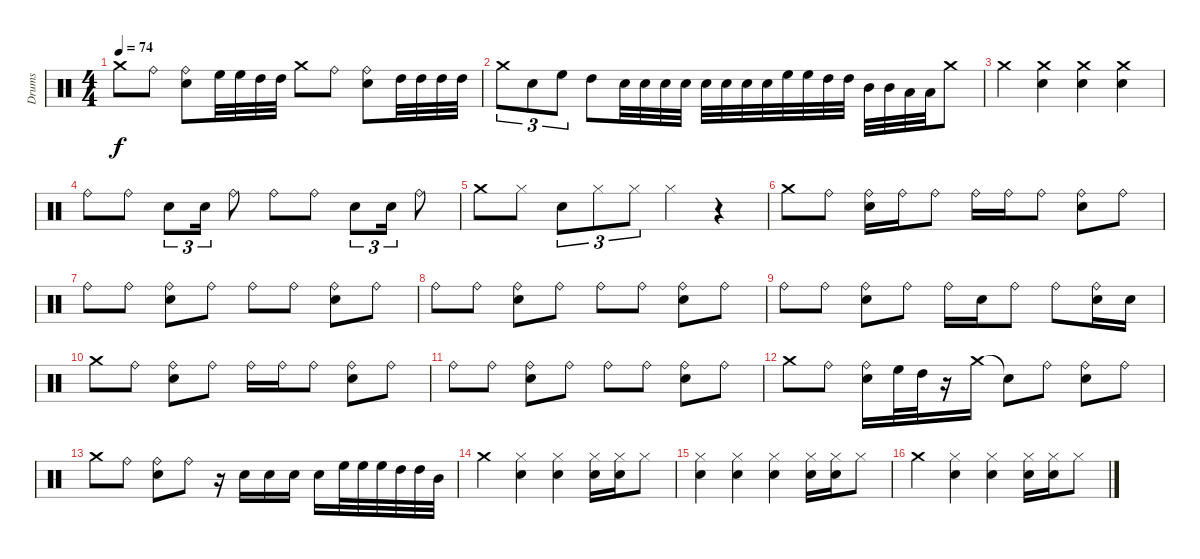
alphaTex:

\track ("Drums" "Drums") {instrument percussion}
\staff {score}
\articulation defaults
\ts (4 4)
\tempo 74
\clef neutral
\ks c "Crash medium (hit)".8{dy f} "Ride (bell)".8
("Ride (bell)" "Electric Snare (hit)").8 "High Floor Tom (hit)".32 "High Floor Tom (hit)".32 "High Tom (hit)".32 "High Tom (hit)".32 "Crash medium (hit)".8 "Ride (bell)".8 ("Ride (bell)" "Electric Snare (hit)").8 "High Tom (hit)".32 "High Tom (hit)".32 "High Tom (hit)".32 "High Tom (hit)".32 |
"Crash medium (hit)".8{tu (3 2)} "Electric Snare (hit)".8{tu (3 2)} "High Floor Tom (hit)".8{tu (3 2)} "High Tom (hit)".8 "Electric Snare (hit)".32 "Electric Snare (hit)".32 "Electric Snare (hit)".32 "Electric Snare (hit)".32 "Electric Snare (hit)".32 "Electric Snare (hit)".32 "Electric Snare (hit)".32 "Electric Snare (hit)".32 "High Floor Tom (hit)".32 "High Floor Tom (hit)".32 "High Tom (hit)".32 "High Tom (hit)".32 "Mid Tom (hit)".32 "Mid Tom (hit)".32 "Low Tom (hit)".32 "Low Tom (hit)".32 "Crash medium (hit)".8 |
"Crash medium (hit)".4 ("Crash medium (hit)" "Electric Snare (hit)").4 ("Crash medium (hit)" "Electric Snare (hit)").4 ("Crash medium (hit)" "Electric Snare (hit)").4 |
"Ride (bell)".8 "Ride (bell)".8 "Electric Snare (hit)".8{tu (3 2)} "Electric Snare (hit)".16{tu (3 2)} "Ride (bell)".8 "Ride (bell)".8 "Ride (bell)".8 "Electric Snare (hit)".8{tu (3 2)} "Electric Snare (hit)".16{tu (3 2)} "Ride (bell)".8 |
"Crash medium (hit)".8 "Hi-Hat (closed)".8 "Electric Snare (hit)".8{tu (3 2)} "Hi-Hat (closed)".8{tu (3 2)} "Hi-Hat (closed)".8{tu (3 2)} "Hi-Hat (closed)".4 r.4 |
"Crash medium (hit)".8 "Ride (bell)".8 ("Ride (bell)" "Electric Snare (hit)").16 "Ride (bell)".16 "Ride (bell)".8 "Ride (bell)".16 "Ride (bell)".16 "Ride (bell)".8 ("Ride (bell)" "Electric Snare (hit)").8 "Ride (bell)".8 |
"Ride (bell)".8 "Ride (bell)".8 ("Ride (bell)" "Electric Snare (hit)").8 "Ride (bell)".8 "Ride (bell)".8 "Ride (bell)".8 ("Ride (bell)" "Electric Snare (hit)").8 "Ride (bell)".8 |
"Ride (bell)".8 "Ride (bell)".8 ("Ride (bell)" "Electric Snare (hit)").8 "Ride (bell)".8 "Ride (bell)".8 "Ride (bell)".8 ("Ride (bell)" "Electric Snare (hit)").8 "Ride (bell)".8 |
"Ride (bell)".8 "Ride (bell)".8 ("Ride (bell)" "Electric Snare (hit)").8 "Ride (bell)".8 "Ride (bell)".16 "Electric Snare (hit)".16 "Ride (bell)".8 "Ride (bell)".8 ("Ride (bell)" "Electric Snare (hit)").16 "Electric Snare (hit)".16 |
"Crash medium (hit)".8 "Ride (bell)".8 ("Ride (bell)" "Electric Snare (hit)").8 "Ride (bell)".8 "Ride (bell)".16 "Ride (bell)".16 "Ride (bell)".8 ("Ride (bell)" "Electric Snare (hit)").8 "Ride (bell)".8 |
"Ride (bell)".8 "Ride (bell)".8 ("Ride (bell)" "Electric Snare (hit)").8 "Ride (bell)".8 "Ride (bell)".8 "Ride (bell)".8 ("Ride (bell)" "Electric Snare (hit)").8 "Ride (bell)".8 |
"Crash medium (hit)".8 "Ride (bell)".8 ("Ride (bell)" "Electric Snare (hit)").16 "High Floor Tom (hit)".32 "High Tom (hit)".32 r.16 "Crash medium (hit)".16 "Snare (hit)"{t}.8 "Ride (bell)".8 ("Ride (bell)" "Electric Snare (hit)").8 "Ride (bell)".8 |
"Crash medium (hit)".8 "Ride (bell)".8 ("Ride (bell)" "Electric Snare (hit)").8 "Ride (bell)".8 r.16 "Electric Snare (hit)".16 "Electric Snare (hit)".16 "Electric Snare (hit)".16 "Electric Snare (hit)".16 "High Floor Tom (hit)".32 "High Floor Tom (hit)".32 "High Floor Tom (hit)".32 "High Tom (hit)".32 "High Tom (hit)".32 "Mid Tom (hit)".32 |
"Crash medium (hit)".4 ("Hi-Hat (closed)" "Electric Snare (hit)").4 ("Hi-Hat (closed)" "Electric Snare (hit)").4 ("Hi-Hat (closed)" "Electric Snare (hit)").16 ("Hi-Hat (closed)" "Electric Snare (hit)").16 "Hi-Hat (closed)".8 |
("Hi-Hat (closed)" "Electric Snare (hit)").4 ("Hi-Hat (closed)" "Electric Snare (hit)").4 ("Hi-Hat (closed)" "Electric Snare (hit)").4 ("Hi-Hat (closed)" "Electric Snare (hit)").16 ("Hi-Hat (closed)" "Electric Snare (hit)").16 "Hi-Hat (closed)".8 |
"Crash medium (hit)".4 ("Hi-Hat (closed)" "Electric Snare (hit)").4 ("Hi-Hat (closed)" "Electric Snare (hit)").4 ("Hi-Hat (closed)" "Electric Snare (hit)").16 ("Hi-Hat (closed)" "Electric Snare (hit)").16 "Hi-Hat (closed)".8
